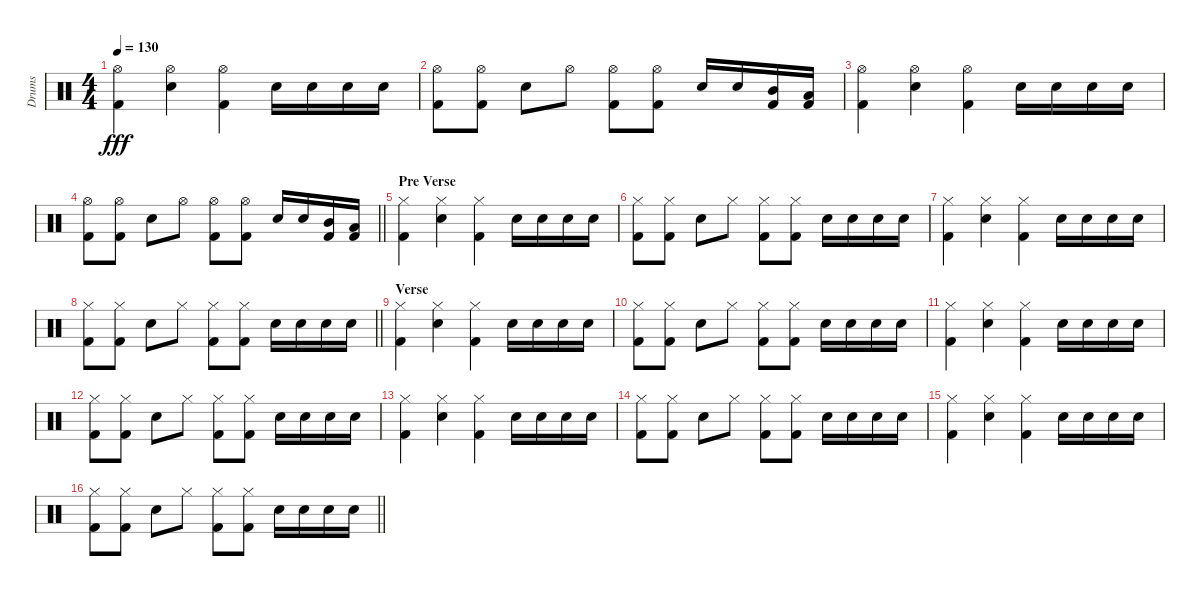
\track ("Drums" "Drums") {instrument percussion}
\staff {score}
\articulation defaults
\ts (4 4)
\tempo 130
\clef neutral
\ks c
("Hi-Hat (open)" "Kick (hit) 2").4{dy fff} ("Hi-Hat (open)" "Electric Snare (hit)").4 ("Hi-Hat (open)" "Kick (hit) 2").4 "Electric Snare (hit)".16 "Electric Snare (hit)".16 "Electric Snare (hit)".16 "Electric Snare (hit)".16 |
("Hi-Hat (open)" "Kick (hit) 2").8 ("Hi-Hat (open)" "Kick (hit) 2").8 "Electric Snare (hit)".8 "Hi-Hat (open)".8 ("Hi-Hat (open)" "Kick (hit) 2").8 ("Hi-Hat (open)" "Kick (hit) 2").8 "Electric Snare (hit)".16 "Electric Snare (hit)".16 ("Mid Tom (hit)" "Kick (hit) 2").16 ("Low Tom (hit)" "Kick (hit) 2").16 |
("Hi-Hat (open)" "Kick (hit) 2").4 ("Hi-Hat (open)" "Electric Snare (hit)").4 ("Hi-Hat (open)" "Kick (hit) 2").4 "Electric Snare (hit)".16 "Electric Snare (hit)".16 "Electric Snare (hit)".16 "Electric Snare (hit)".16 |
\barLineRight lightlight
("Hi-Hat (open)" "Kick (hit) 2").8 ("Hi-Hat (open)" "Kick (hit) 2").8 "Electric Snare (hit)".8 "Hi-Hat (open)".8 ("Hi-Hat (open)" "Kick (hit) 2").8 ("Hi-Hat (open)" "Kick (hit) 2").8 "Electric Snare (hit)".16 "Electric Snare (hit)".16 ("Mid Tom (hit)" "Kick (hit) 2").16 ("Low Tom (hit)" "Kick (hit) 2").16 |
\section ("" "Pre Verse")
("Hi-Hat (closed)" "Kick (hit) 2").4 ("Hi-Hat (closed)" "Electric Snare (hit)").4 ("Hi-Hat (closed)" "Kick (hit) 2").4 "Electric Snare (hit)".16 "Electric Snare (hit)".16 "Electric Snare (hit)".16 "Electric Snare (hit)".16 |
("Hi-Hat (closed)" "Kick (hit) 2").8 ("Hi-Hat (closed)" "Kick (hit) 2").8 "Electric Snare (hit)".8 "Hi-Hat (closed)".8 ("Hi-Hat (closed)" "Kick (hit) 2").8 ("Hi-Hat (closed)" "Kick (hit) 2").8 "Electric Snare (hit)".16 "Electric Snare (hit)".16 "Electric Snare (hit)".16 "Electric Snare (hit)".16 |
("Hi-Hat (closed)" "Kick (hit) 2").4 ("Hi-Hat (closed)" "Electric Snare (hit)").4 ("Hi-Hat (closed)" "Kick (hit) 2").4 "Electric Snare (hit)".16 "Electric Snare (hit)".16 "Electric Snare (hit)".16 "Electric Snare (hit)".16 |
\barLineRight lightlight
("Hi-Hat (closed)" "Kick (hit) 2").8 ("Hi-Hat (closed)" "Kick (hit) 2").8 "Electric Snare (hit)".8 "Hi-Hat (closed)".8 ("Hi-Hat (closed)" "Kick (hit) 2").8 ("Hi-Hat (closed)" "Kick (hit) 2").8 "Electric Snare (hit)".16 "Electric Snare (hit)".16 "Electric Snare (hit)".16 "Electric Snare (hit)".16 |
\section ("" "Verse")
("Hi-Hat (closed)" "Kick (hit) 2").4 ("Hi-Hat (closed)" "Electric Snare (hit)").4 ("Hi-Hat (closed)" "Kick (hit) 2").4 "Electric Snare (hit)".16 "Electric Snare (hit)".16 "Electric Snare (hit)".16 "Electric Snare (hit)".16 |
("Hi-Hat (closed)" "Kick (hit) 2").8 ("Hi-Hat (closed)" "Kick (hit) 2").8 "Electric Snare (hit)".8 "Hi-Hat (closed)".8 ("Hi-Hat (closed)" "Kick (hit) 2").8 ("Hi-Hat (closed)" "Kick (hit) 2").8 "Electric Snare (hit)".16 "Electric Snare (hit)".16 "Electric Snare (hit)".16 "Electric Snare (hit)".16 |
("Hi-Hat (closed)" "Kick (hit) 2").4 ("Hi-Hat (closed)" "Electric Snare (hit)").4 ("Hi-Hat (closed)" "Kick (hit) 2").4 "Electric Snare (hit)".16 "Electric Snare (hit)".16 "Electric Snare (hit)".16 "Electric Snare (hit)".16 |
("Hi-Hat (closed)" "Kick (hit) 2").8 ("Hi-Hat (closed)" "Kick (hit) 2").8 "Electric Snare (hit)".8 "Hi-Hat (closed)".8 ("Hi-Hat (closed)" "Kick (hit) 2").8 ("Hi-Hat (closed)" "Kick (hit) 2").8 "Electric Snare (hit)".16 "Electric Snare (hit)".16 "Electric Snare (hit)".16 "Electric Snare (hit)".16 |
("Hi-Hat (closed)" "Kick (hit) 2").4 ("Hi-Hat (closed)" "Electric Snare (hit)").4 ("Hi-Hat (closed)" "Kick (hit) 2").4 "Electric Snare (hit)".16 "Electric Snare (hit)".16 "Electric Snare (hit)".16 "Electric Snare (hit)".16 |
("Hi-Hat (closed)" "Kick (hit) 2").8 ("Hi-Hat (closed)" "Kick (hit) 2").8 "Electric Snare (hit)".8 "Hi-Hat (closed)".8 ("Hi-Hat (closed)" "Kick (hit) 2").8 ("Hi-Hat (closed)" "Kick (hit) 2").8 "Electric Snare (hit)".16 "Electric Snare (hit)".16 "Electric Snare (hit)".16 "Electric Snare (hit)".16 |
("Hi-Hat (closed)" "Kick (hit) 2").4 ("Hi-Hat (closed)" "Electric Snare (hit)").4 ("Hi-Hat (closed)" "Kick (hit) 2").4 "Electric Snare (hit)".16 "Electric Snare (hit)".16 "Electric Snare (hit)".16 "Electric Snare (hit)".16 |
\barLineRight lightlight
("Hi-Hat (closed)" "Kick (hit) 2").8 ("Hi-Hat (closed)" "Kick (hit) 2").8 "Electric Snare (hit)".8 "Hi-Hat (closed)".8 ("Hi-Hat (closed)" "Kick (hit) 2").8 ("Hi-Hat (closed)" "Kick (hit) 2").8 "Electric Snare (hit)".16 "Electric Snare (hit)".16 "Electric Snare (hit)".16 "Electric Snare (hit)".16
